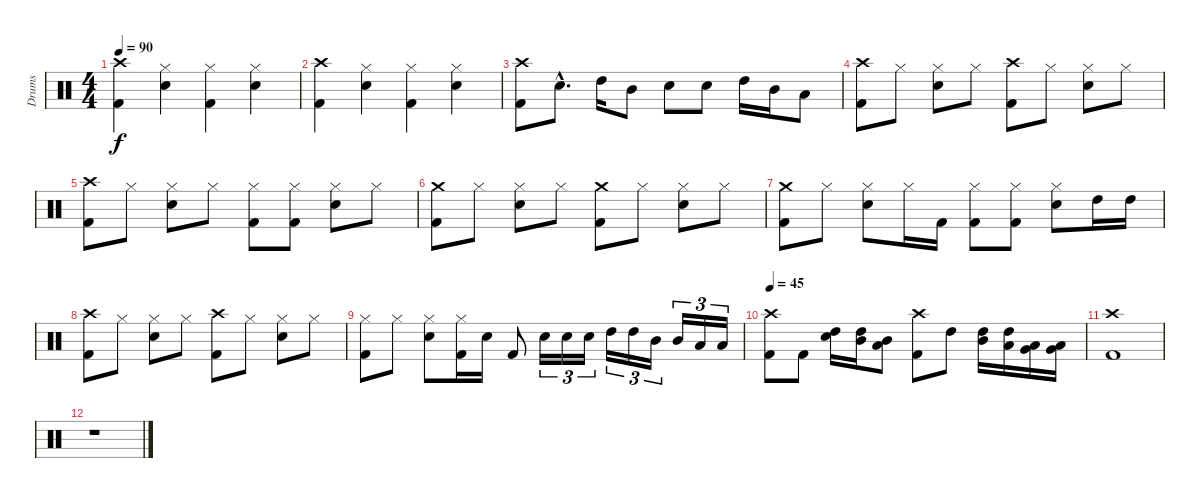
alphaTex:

\track ("Drums" "Drums") {instrument percussion}
\staff {score}
\articulation defaults
\ts (4 4)
\tempo 90
\clef neutral
\ks c
("Crash high (hit)" "Kick (hit) 2").4{dy f} ("Hi-Hat (closed)" "Snare (hit) 2").4 ("Hi-Hat (closed)" "Kick (hit) 2").4 ("Hi-Hat (closed)" "Snare (hit) 2").4 |
("Crash high (hit)" "Kick (hit) 2").4 ("Hi-Hat (closed)" "Snare (hit) 2").4 ("Hi-Hat (closed)" "Kick (hit) 2").4 ("Hi-Hat (closed)" "Snare (hit) 2").4 |
("Crash high (hit)" "Kick (hit) 2").8 "Snare (hit) 2"{hac}.8{d} "High Tom (hit)".16 "Mid Tom (hit)".8 "Snare (hit) 2".8 "Snare (hit) 2".8 "High Tom (hit)".16 "Mid Tom (hit)".16 "Low Tom (hit)".8 |
("Crash high (hit)" "Kick (hit) 2").8 "Hi-Hat (closed)".8 ("Hi-Hat (closed)" "Snare (hit) 2").8 "Hi-Hat (closed)".8 ("Crash high (hit)" "Kick (hit) 2").8 "Hi-Hat (closed)".8 ("Hi-Hat (closed)" "Snare (hit) 2").8 "Hi-Hat (closed)".8 |
("Crash high (hit)" "Kick (hit) 2").8 "Hi-Hat (closed)".8 ("Hi-Hat (closed)" "Snare (hit) 2").8 "Hi-Hat (closed)".8 ("Hi-Hat (closed)" "Kick (hit) 2").8 ("Hi-Hat (closed)" "Kick (hit) 2").8 ("Hi-Hat (closed)" "Snare (hit) 2").8 "Hi-Hat (closed)".8 |
("Crash medium (hit)" "Kick (hit) 2").8 "Hi-Hat (closed)".8 ("Hi-Hat (closed)" "Snare (hit) 2").8 "Hi-Hat (closed)".8 ("Crash medium (hit)" "Kick (hit) 2").8 "Hi-Hat (closed)".8 ("Hi-Hat (closed)" "Snare (hit) 2").8 "Hi-Hat (closed)".8 |
("Crash medium (hit)" "Kick (hit) 2").8 "Hi-Hat (closed)".8 ("Hi-Hat (closed)" "Snare (hit) 2").8 "Hi-Hat (closed)".16 "Kick (hit) 2".16 ("Hi-Hat (closed)" "Kick (hit) 2").8 ("Hi-Hat (closed)" "Kick (hit) 2").8 ("Hi-Hat (closed)" "Snare (hit) 2").8 "High Tom (hit)".16 "High Tom (hit)".16 |
("Crash high (hit)" "Kick (hit) 2").8 "Hi-Hat (closed)".8 ("Hi-Hat (closed)" "Snare (hit) 2").8 "Hi-Hat (closed)".8 ("Crash high (hit)" "Kick (hit) 2").8 "Hi-Hat (closed)".8 ("Hi-Hat (closed)" "Snare (hit) 2").8 "Hi-Hat (closed)".8 |
("Hi-Hat (closed)" "Kick (hit) 2").8 "Hi-Hat (closed)".8 ("Hi-Hat (closed)" "Snare (hit) 2").8 ("Hi-Hat (closed)" "Kick (hit) 2").16 "Snare (hit) 2".16 "Kick (hit) 2".8 "Snare (hit) 2".16{tu (3 2)} "Snare (hit) 2".16{tu (3 2)} "Snare (hit) 2".16{tu (3 2)} "High Tom (hit)".16{tu (3 2)} "High Tom (hit)".16{tu (3 2)} "Mid Tom (hit)".16{tu (3 2)} "Mid Tom (hit)".16{tu (3 2)} "Low Tom (hit)".16{tu (3 2)} "Low Tom (hit)".16{tu (3 2)} |
\tempo 45
("Crash high (hit)" "Kick (hit) 2").8 "Kick (hit) 2".8 ("High Tom (hit)" "Snare (hit) 2").16 ("High Tom (hit)" "Mid Tom (hit)").16 ("Mid Tom (hit)" "Low Tom (hit)").8 ("Crash high (hit)" "Kick (hit) 2").8 "High Tom (hit)".8 ("High Tom (hit)" "Mid Tom (hit)").16 ("High Tom (hit)" "Low Tom (hit)").16 ("Low Tom (hit)" "Very Low Tom (hit)").16 ("Very Low Tom (hit)" "Low Floor Tom (hit)").16 |
("Crash high (hit)" "Kick (hit) 2").1 |
r.1
